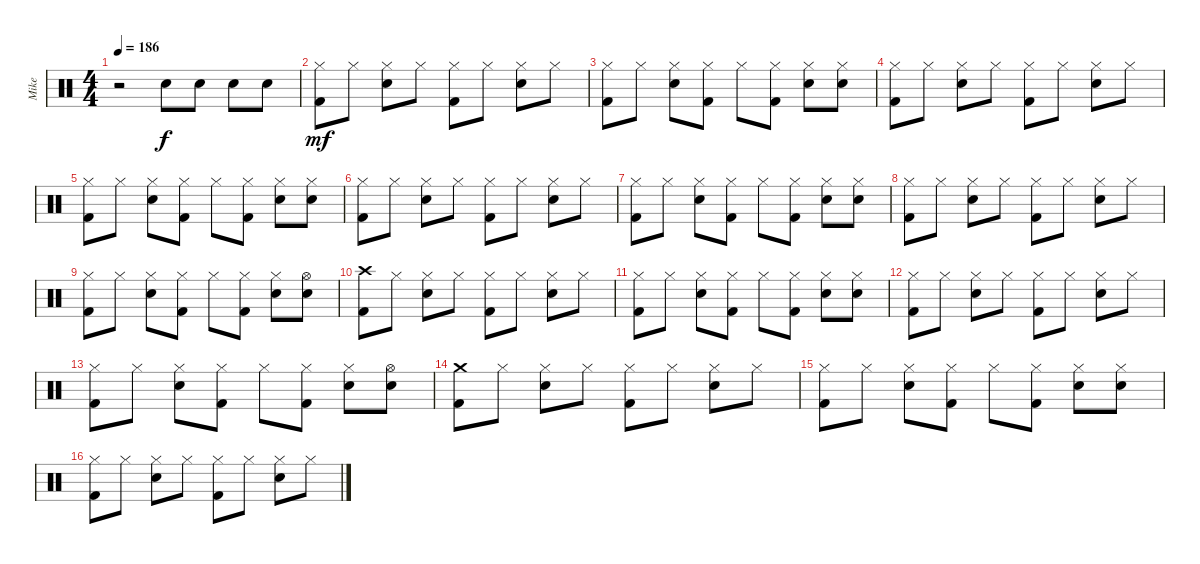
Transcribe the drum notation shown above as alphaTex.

\track ("Mike" "Mike") {instrument percussion}
\staff {score}
\articulation defaults
\ts (4 4)
\tempo 186
\clef neutral
\ks c
r.2{dy f} "Snare (hit) 2".8 "Snare (hit) 2".8 "Snare (hit) 2".8 "Snare (hit) 2".8 |
("Hi-Hat (closed)" "Kick (hit) 2").8{dy mf} "Hi-Hat (closed)".8 ("Hi-Hat (closed)" "Snare (hit) 2").8 "Hi-Hat (closed)".8 ("Hi-Hat (closed)" "Kick (hit) 2").8 "Hi-Hat (closed)".8 ("Hi-Hat (closed)" "Snare (hit) 2").8 "Hi-Hat (closed)".8 |
("Hi-Hat (closed)" "Kick (hit) 2").8 "Hi-Hat (closed)".8 ("Hi-Hat (closed)" "Snare (hit) 2").8 ("Hi-Hat (closed)" "Kick (hit) 2").8 "Hi-Hat (closed)".8 ("Hi-Hat (closed)" "Kick (hit) 2").8 ("Hi-Hat (closed)" "Snare (hit) 2").8 ("Hi-Hat (closed)" "Snare (hit) 2").8 |
("Hi-Hat (closed)" "Kick (hit) 2").8 "Hi-Hat (closed)".8 ("Hi-Hat (closed)" "Snare (hit) 2").8 "Hi-Hat (closed)".8 ("Hi-Hat (closed)" "Kick (hit) 2").8 "Hi-Hat (closed)".8 ("Hi-Hat (closed)" "Snare (hit) 2").8 "Hi-Hat (closed)".8 |
("Hi-Hat (closed)" "Kick (hit) 2").8 "Hi-Hat (closed)".8 ("Hi-Hat (closed)" "Snare (hit) 2").8 ("Hi-Hat (closed)" "Kick (hit) 2").8 "Hi-Hat (closed)".8 ("Hi-Hat (closed)" "Kick (hit) 2").8 ("Hi-Hat (closed)" "Snare (hit) 2").8 ("Hi-Hat (closed)" "Snare (hit) 2").8 |
("Hi-Hat (closed)" "Kick (hit) 2").8 "Hi-Hat (closed)".8 ("Hi-Hat (closed)" "Snare (hit) 2").8 "Hi-Hat (closed)".8 ("Hi-Hat (closed)" "Kick (hit) 2").8 "Hi-Hat (closed)".8 ("Hi-Hat (closed)" "Snare (hit) 2").8 "Hi-Hat (closed)".8 |
("Hi-Hat (closed)" "Kick (hit) 2").8 "Hi-Hat (closed)".8 ("Hi-Hat (closed)" "Snare (hit) 2").8 ("Hi-Hat (closed)" "Kick (hit) 2").8 "Hi-Hat (closed)".8 ("Hi-Hat (closed)" "Kick (hit) 2").8 ("Hi-Hat (closed)" "Snare (hit) 2").8 ("Hi-Hat (closed)" "Snare (hit) 2").8 |
("Hi-Hat (closed)" "Kick (hit) 2").8 "Hi-Hat (closed)".8 ("Hi-Hat (closed)" "Snare (hit) 2").8 "Hi-Hat (closed)".8 ("Hi-Hat (closed)" "Kick (hit) 2").8 "Hi-Hat (closed)".8 ("Hi-Hat (closed)" "Snare (hit) 2").8 "Hi-Hat (closed)".8 |
("Hi-Hat (closed)" "Kick (hit) 2").8 "Hi-Hat (closed)".8 ("Hi-Hat (closed)" "Snare (hit) 2").8 ("Hi-Hat (closed)" "Kick (hit) 2").8 "Hi-Hat (closed)".8 ("Hi-Hat (closed)" "Kick (hit) 2").8 ("Hi-Hat (closed)" "Snare (hit) 2").8 ("Hi-Hat (open)" "Snare (hit) 2").8 |
("Crash high (hit)" "Kick (hit) 2").8 "Hi-Hat (closed)".8 ("Hi-Hat (closed)" "Snare (hit) 2").8 "Hi-Hat (closed)".8 ("Hi-Hat (closed)" "Kick (hit) 2").8 "Hi-Hat (closed)".8 ("Hi-Hat (closed)" "Snare (hit) 2").8 "Hi-Hat (closed)".8 |
("Hi-Hat (closed)" "Kick (hit) 2").8 "Hi-Hat (closed)".8 ("Hi-Hat (closed)" "Snare (hit) 2").8 ("Hi-Hat (closed)" "Kick (hit) 2").8 "Hi-Hat (closed)".8 ("Hi-Hat (closed)" "Kick (hit) 2").8 ("Hi-Hat (closed)" "Snare (hit) 2").8 ("Hi-Hat (closed)" "Snare (hit) 2").8 |
("Hi-Hat (closed)" "Kick (hit) 2").8 "Hi-Hat (closed)".8 ("Hi-Hat (closed)" "Snare (hit) 2").8 "Hi-Hat (closed)".8 ("Hi-Hat (closed)" "Kick (hit) 2").8 "Hi-Hat (closed)".8 ("Hi-Hat (closed)" "Snare (hit) 2").8 "Hi-Hat (closed)".8 |
("Hi-Hat (closed)" "Kick (hit) 2").8 "Hi-Hat (closed)".8 ("Hi-Hat (closed)" "Snare (hit) 2").8 ("Hi-Hat (closed)" "Kick (hit) 2").8 "Hi-Hat (closed)".8 ("Hi-Hat (closed)" "Kick (hit) 2").8 ("Hi-Hat (closed)" "Snare (hit) 2").8 ("Hi-Hat (open)" "Snare (hit) 2").8 |
("Crash medium (hit)" "Kick (hit) 2").8 "Hi-Hat (closed)".8 ("Hi-Hat (closed)" "Snare (hit) 2").8 "Hi-Hat (closed)".8 ("Hi-Hat (closed)" "Kick (hit) 2").8 "Hi-Hat (closed)".8 ("Hi-Hat (closed)" "Snare (hit) 2").8 "Hi-Hat (closed)".8 |
("Hi-Hat (closed)" "Kick (hit) 2").8 "Hi-Hat (closed)".8 ("Hi-Hat (closed)" "Snare (hit) 2").8 ("Hi-Hat (closed)" "Kick (hit) 2").8 "Hi-Hat (closed)".8 ("Hi-Hat (closed)" "Kick (hit) 2").8 ("Hi-Hat (closed)" "Snare (hit) 2").8 ("Hi-Hat (closed)" "Snare (hit) 2").8 |
("Hi-Hat (closed)" "Kick (hit) 2").8 "Hi-Hat (closed)".8 ("Hi-Hat (closed)" "Snare (hit) 2").8 "Hi-Hat (closed)".8 ("Hi-Hat (closed)" "Kick (hit) 2").8 "Hi-Hat (closed)".8 ("Hi-Hat (closed)" "Snare (hit) 2").8 "Hi-Hat (closed)".8
